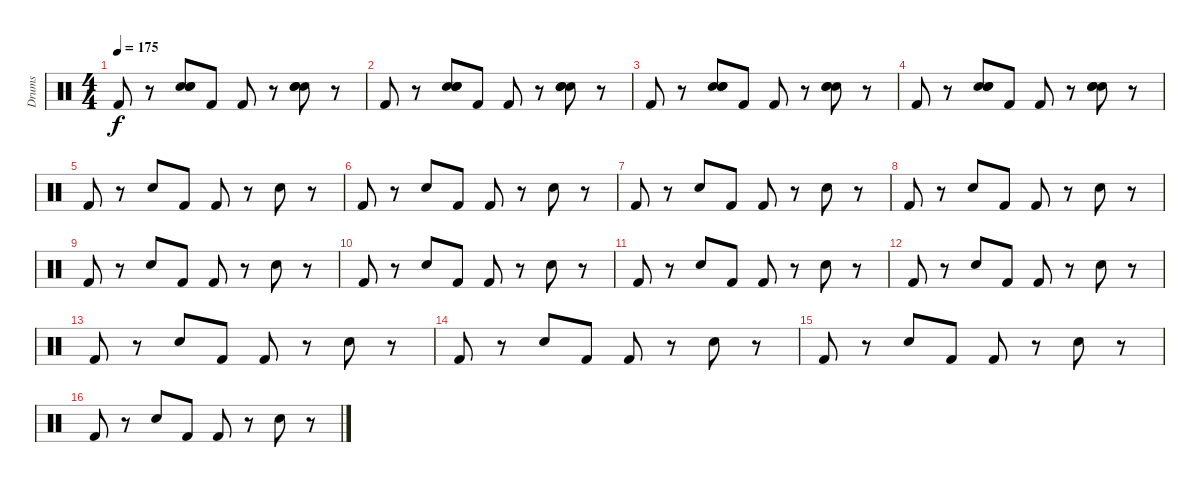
\track ("Drums" "Drums") {instrument percussion}
\staff {score}
\articulation defaults
\ts (4 4)
\tempo 175
\clef neutral
\ks c "Kick (hit) 2".8{dy f}
r.8 ("Snare (hit) 2" "Electric Snare (hit)" "Hand Clap (hit)").8 "Kick (hit) 2".8 "Kick (hit) 2".8 r.8 ("Snare (hit) 2" "Electric Snare (hit)" "Hand Clap (hit)").8 r.8 |
"Kick (hit) 2".8 r.8 ("Snare (hit) 2" "Electric Snare (hit)" "Hand Clap (hit)").8 "Kick (hit) 2".8 "Kick (hit) 2".8 r.8 ("Snare (hit) 2" "Electric Snare (hit)" "Hand Clap (hit)").8 r.8 |
"Kick (hit) 2".8 r.8 ("Snare (hit) 2" "Electric Snare (hit)" "Hand Clap (hit)").8 "Kick (hit) 2".8 "Kick (hit) 2".8 r.8 ("Snare (hit) 2" "Electric Snare (hit)" "Hand Clap (hit)").8 r.8 |
"Kick (hit) 2".8 r.8 ("Snare (hit) 2" "Electric Snare (hit)" "Hand Clap (hit)").8 "Kick (hit) 2".8 "Kick (hit) 2".8 r.8 ("Snare (hit) 2" "Electric Snare (hit)" "Hand Clap (hit)").8 r.8 |
"Kick (hit) 2".8 r.8 "Electric Snare (hit)".8 "Kick (hit) 2".8 "Kick (hit) 2".8 r.8 "Electric Snare (hit)".8 r.8 |
"Kick (hit) 2".8 r.8 "Electric Snare (hit)".8 "Kick (hit) 2".8 "Kick (hit) 2".8 r.8 "Electric Snare (hit)".8 r.8 |
"Kick (hit) 2".8 r.8 "Electric Snare (hit)".8 "Kick (hit) 2".8 "Kick (hit) 2".8 r.8 "Electric Snare (hit)".8 r.8 |
"Kick (hit) 2".8 r.8 "Electric Snare (hit)".8 "Kick (hit) 2".8 "Kick (hit) 2".8 r.8 "Electric Snare (hit)".8 r.8 |
"Kick (hit) 2".8 r.8 "Electric Snare (hit)".8 "Kick (hit) 2".8 "Kick (hit) 2".8 r.8 "Electric Snare (hit)".8 r.8 |
"Kick (hit) 2".8 r.8 "Electric Snare (hit)".8 "Kick (hit) 2".8 "Kick (hit) 2".8 r.8 "Electric Snare (hit)".8 r.8 |
"Kick (hit) 2".8 r.8 "Electric Snare (hit)".8 "Kick (hit) 2".8 "Kick (hit) 2".8 r.8 "Electric Snare (hit)".8 r.8 |
"Kick (hit) 2".8 r.8 "Electric Snare (hit)".8 "Kick (hit) 2".8 "Kick (hit) 2".8 r.8 "Electric Snare (hit)".8 r.8 |
"Kick (hit) 2".8 r.8 "Electric Snare (hit)".8 "Kick (hit) 2".8 "Kick (hit) 2".8 r.8 "Electric Snare (hit)".8 r.8 |
"Kick (hit) 2".8 r.8 "Electric Snare (hit)".8 "Kick (hit) 2".8 "Kick (hit) 2".8 r.8 "Electric Snare (hit)".8 r.8 |
"Kick (hit) 2".8 r.8 "Electric Snare (hit)".8 "Kick (hit) 2".8 "Kick (hit) 2".8 r.8 "Electric Snare (hit)".8 r.8 |
"Kick (hit) 2".8 r.8 "Electric Snare (hit)".8 "Kick (hit) 2".8 "Kick (hit) 2".8 r.8 "Electric Snare (hit)".8 r.8
